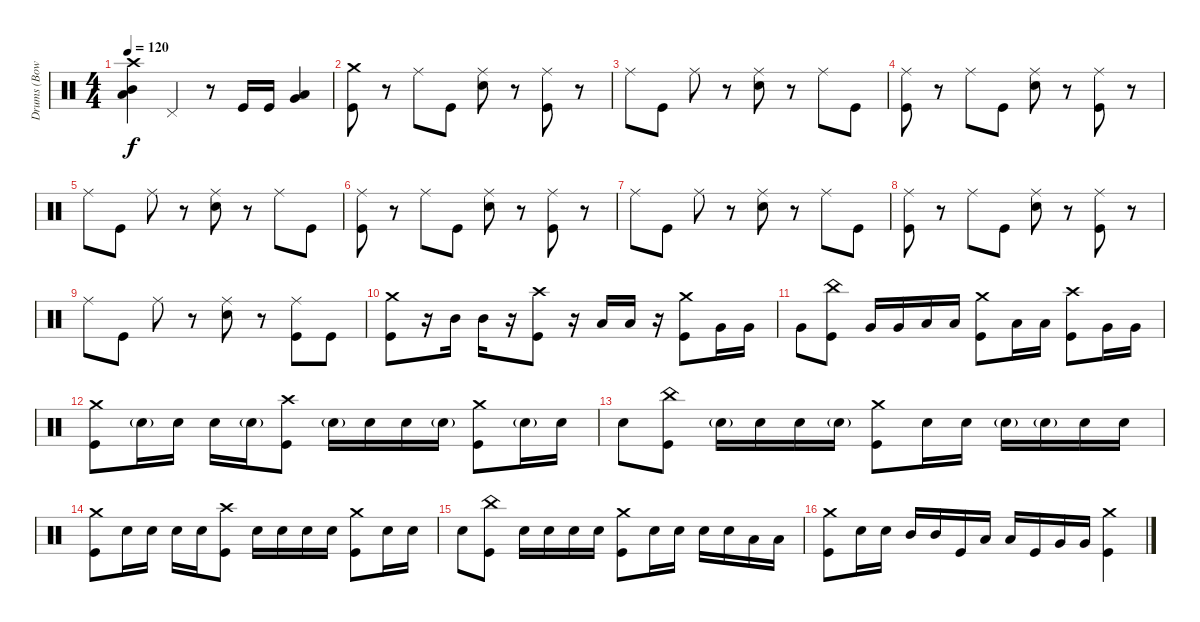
\track ("Drums (Bowders)" "Drums (Bow") {instrument percussion}
\staff {score}
\articulation defaults
\ts (4 4)
\tempo 120
\clef neutral
\ks c
("Low Floor Tom (hit)" "Mid Tom (hit)" "Crash high (hit)").4{dy f} "Pedal Hi-Hat (hit)".4 r.8 "Kick (hit)".16 "Kick (hit)".16 ("Very Low Tom (hit)" "Low Tom (hit)").4 |
("Kick (hit)" "Crash medium (hit)").8 r.8 "Ride (middle)".8 "Kick (hit)".8 ("Ride (middle)" "Snare (hit) 2").8 r.8 ("Ride (middle)" "Kick (hit)").8 r.8 |
"Ride (middle)".8 "Kick (hit)".8 "Ride (middle)".8 r.8 ("Snare (hit) 2" "Ride (middle)").8 r.8 "Ride (middle)".8 "Kick (hit)".8 |
("Ride (middle)" "Kick (hit)").8 r.8 "Ride (middle)".8 "Kick (hit)".8 ("Ride (middle)" "Snare (hit) 2").8 r.8 ("Ride (middle)" "Kick (hit)").8 r.8 |
"Ride (middle)".8 "Kick (hit)".8 "Ride (middle)".8 r.8 ("Snare (hit) 2" "Ride (middle)").8 r.8 "Ride (middle)".8 "Kick (hit)".8 |
("Ride (middle)" "Kick (hit)").8 r.8 "Ride (middle)".8 "Kick (hit)".8 ("Ride (middle)" "Snare (hit) 2").8 r.8 ("Ride (middle)" "Kick (hit)").8 r.8 |
"Ride (middle)".8 "Kick (hit)".8 "Ride (middle)".8 r.8 ("Snare (hit) 2" "Ride (middle)").8 r.8 "Ride (middle)".8 "Kick (hit)".8 |
("Ride (middle)" "Kick (hit)").8 r.8 "Ride (middle)".8 "Kick (hit)".8 ("Ride (middle)" "Snare (hit) 2").8 r.8 ("Ride (middle)" "Kick (hit)").8 r.8 |
"Ride (middle)".8 "Kick (hit)".8 "Ride (middle)".8 r.8 ("Snare (hit) 2" "Ride (middle)").8 r.8 ("Ride (middle)" "Kick (hit)").8 "Kick (hit)".8 |
("Kick (hit)" "Crash medium (hit)").8 r.16 "Mid Tom (hit)".16 "Mid Tom (hit)".16 r.16 ("Kick (hit)" "Crash high (hit)").8 r.16 "Low Tom (hit)".16 "Low Tom (hit)".16 r.16 ("Kick (hit)" "Crash medium (hit)").8 "Very Low Tom (hit)".16 "Very Low Tom (hit)".16 |
"Very Low Tom (hit)".8 ("Kick (hit)" "China (hit)").8 "Very Low Tom (hit)".16 "Very Low Tom (hit)".16 "Low Floor Tom (hit)".16 "Low Floor Tom (hit)".16 ("Kick (hit)" "Crash medium (hit)").8 "Low Tom (hit)".16 "Low Tom (hit)".16 ("Kick (hit)" "Crash high (hit)").8 "Very Low Tom (hit)".16 "Very Low Tom (hit)".16 |
("Kick (hit)" "Crash medium (hit)").8 "Snare (hit) 2"{g}.16 "Snare (hit) 2".16 "Snare (hit) 2".16 "Snare (hit) 2"{g}.16 ("Kick (hit)" "Crash high (hit)").8 "Snare (hit) 2"{g}.16 "Snare (hit) 2".16 "Snare (hit) 2".16 "Snare (hit) 2"{g}.16 ("Kick (hit)" "Crash medium (hit)").8 "Snare (hit) 2"{g}.16 "Snare (hit) 2".16 |
"Snare (hit) 2".8 ("Kick (hit)" "China (hit)").8 "Snare (hit) 2"{g}.16 "Snare (hit) 2".16 "Snare (hit) 2".16 "Snare (hit) 2"{g}.16 ("Kick (hit)" "Crash medium (hit)").8 "Snare (hit) 2".16 "Snare (hit) 2".16 "Snare (hit) 2"{g}.16 "Snare (hit) 2"{g}.16 "Snare (hit) 2".16 "Snare (hit) 2".16 |
("Kick (hit)" "Crash medium (hit)").8 "Snare (hit) 2".16 "Snare (hit) 2".16 "Snare (hit) 2".16 "Snare (hit) 2".16 ("Kick (hit)" "Crash high (hit)").8 "Snare (hit) 2".16 "Snare (hit) 2".16 "Snare (hit) 2".16 "Snare (hit) 2".16 ("Kick (hit)" "Crash medium (hit)").8 "Snare (hit) 2".16 "Snare (hit) 2".16 |
"Snare (hit) 2".8 ("Kick (hit)" "China (hit)").8 "Snare (hit) 2".16 "Snare (hit) 2".16 "Snare (hit) 2".16 "Snare (hit) 2".16 ("Kick (hit)" "Crash medium (hit)").8 "Snare (hit) 2".16 "Snare (hit) 2".16 "Snare (hit) 2".16 "Snare (hit) 2".16 "Low Tom (hit)".16 "Low Tom (hit)".16 |
("Kick (hit)" "Crash medium (hit)").8 "Snare (hit) 2".16 "Snare (hit) 2".16 "Mid Tom (hit)".16 "Mid Tom (hit)".16 "Kick (hit)".16 "Low Tom (hit)".16 "Low Tom (hit)".16 "Kick (hit)".16 "Very Low Tom (hit)".16 "Very Low Tom (hit)".16 ("Kick (hit)" "Crash medium (hit)").4
